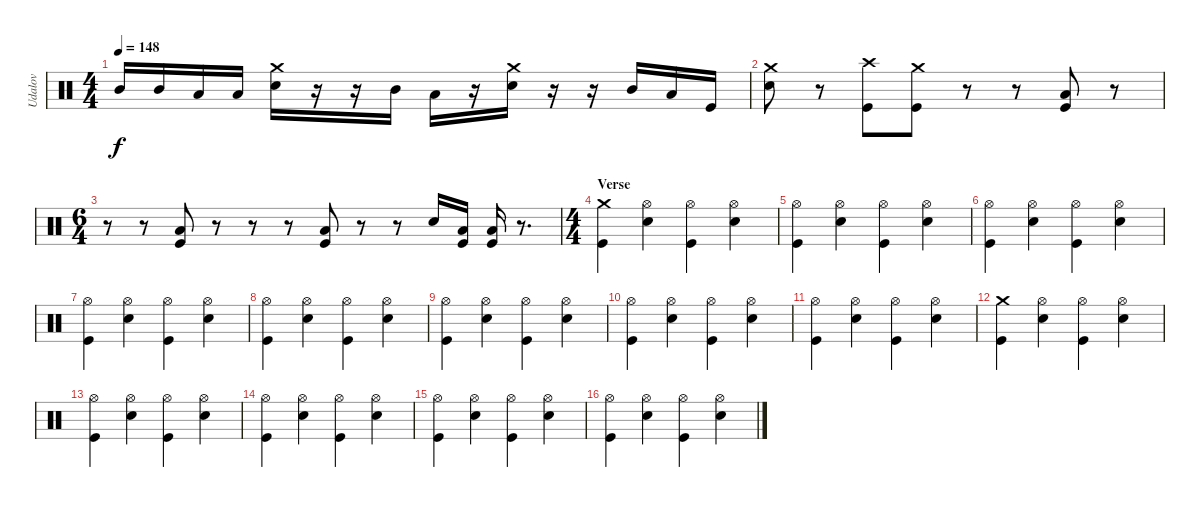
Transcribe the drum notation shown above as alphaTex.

\track ("Udalov" "Udalov") {instrument percussion}
\staff {score}
\articulation defaults
\ts (4 4)
\tempo 148
\clef neutral
\ks c "Mid Tom (hit)".16{dy f} "Mid Tom (hit)".16 "Low Tom (hit)".16 "Low Tom (hit)".16
("Electric Snare (hit)" "Crash medium (hit)").16 r.16 r.16 "Mid Tom (hit)".16 "Low Tom (hit)".16 r.16 ("Electric Snare (hit)" "Crash medium (hit)").16 r.16 r.16 "Mid Tom (hit)".16 "Low Tom (hit)".16 "Kick (hit)".16 |
("Electric Snare (hit)" "Crash medium (hit)").8 r.8 ("Kick (hit)" "Crash high (hit)").8 ("Kick (hit)" "Crash medium (hit)").8 r.8 r.8 ("Low Tom (hit)" "Kick (hit)").8 r.8 |
\ts (6 4)
r.8 r.8 ("Low Tom (hit)" "Kick (hit)").8 r.8 r.8 r.8 ("Low Tom (hit)" "Kick (hit)").8 r.8 r.8 "Electric Snare (hit)".16 ("Low Tom (hit)" "Kick (hit)").16 ("Low Tom (hit)" "Kick (hit)").16 r.8{d} |
\ts (4 4)
\section ("" "Verse")
("Kick (hit)" "Crash medium (hit)").4 ("Electric Snare (hit)" "Hi-Hat (open)").4 ("Kick (hit)" "Hi-Hat (open)").4 ("Electric Snare (hit)" "Hi-Hat (open)").4 |
("Kick (hit)" "Hi-Hat (open)").4 ("Electric Snare (hit)" "Hi-Hat (open)").4 ("Kick (hit)" "Hi-Hat (open)").4 ("Electric Snare (hit)" "Hi-Hat (open)").4 |
("Kick (hit)" "Hi-Hat (open)").4 ("Electric Snare (hit)" "Hi-Hat (open)").4 ("Kick (hit)" "Hi-Hat (open)").4 ("Electric Snare (hit)" "Hi-Hat (open)").4 |
("Kick (hit)" "Hi-Hat (open)").4 ("Electric Snare (hit)" "Hi-Hat (open)").4 ("Kick (hit)" "Hi-Hat (open)").4 ("Electric Snare (hit)" "Hi-Hat (open)").4 |
("Kick (hit)" "Hi-Hat (open)").4 ("Electric Snare (hit)" "Hi-Hat (open)").4 ("Kick (hit)" "Hi-Hat (open)").4 ("Electric Snare (hit)" "Hi-Hat (open)").4 |
("Kick (hit)" "Hi-Hat (open)").4 ("Electric Snare (hit)" "Hi-Hat (open)").4 ("Kick (hit)" "Hi-Hat (open)").4 ("Electric Snare (hit)" "Hi-Hat (open)").4 |
("Kick (hit)" "Hi-Hat (open)").4 ("Electric Snare (hit)" "Hi-Hat (open)").4 ("Kick (hit)" "Hi-Hat (open)").4 ("Electric Snare (hit)" "Hi-Hat (open)").4 |
("Kick (hit)" "Hi-Hat (open)").4 ("Electric Snare (hit)" "Hi-Hat (open)").4 ("Kick (hit)" "Hi-Hat (open)").4 ("Electric Snare (hit)" "Hi-Hat (open)").4 |
("Kick (hit)" "Crash medium (hit)").4 ("Electric Snare (hit)" "Hi-Hat (open)").4 ("Kick (hit)" "Hi-Hat (open)").4 ("Electric Snare (hit)" "Hi-Hat (open)").4 |
("Kick (hit)" "Hi-Hat (open)").4 ("Electric Snare (hit)" "Hi-Hat (open)").4 ("Kick (hit)" "Hi-Hat (open)").4 ("Electric Snare (hit)" "Hi-Hat (open)").4 |
("Kick (hit)" "Hi-Hat (open)").4 ("Electric Snare (hit)" "Hi-Hat (open)").4 ("Kick (hit)" "Hi-Hat (open)").4 ("Electric Snare (hit)" "Hi-Hat (open)").4 |
("Kick (hit)" "Hi-Hat (open)").4 ("Electric Snare (hit)" "Hi-Hat (open)").4 ("Kick (hit)" "Hi-Hat (open)").4 ("Electric Snare (hit)" "Hi-Hat (open)").4 |
("Kick (hit)" "Hi-Hat (open)").4 ("Electric Snare (hit)" "Hi-Hat (open)").4 ("Kick (hit)" "Hi-Hat (open)").4 ("Electric Snare (hit)" "Hi-Hat (open)").4
